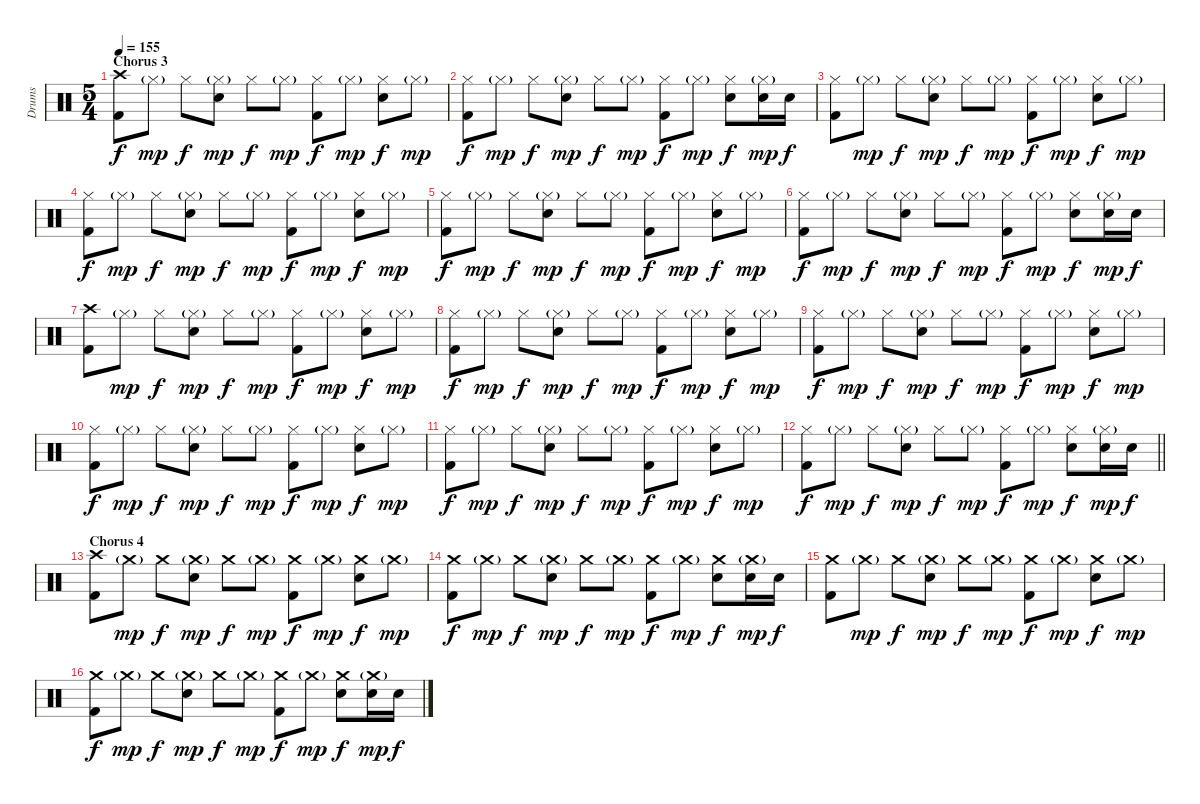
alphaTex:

\track ("Drums" "Drums") {instrument percussion}
\staff {score}
\articulation defaults
\ts (5 4)
\section ("" "Chorus 3")
\tempo 155
\clef neutral
\ks c
("Crash high (hit)" "Kick (hit) 2").8{dy f} "Hi-Hat (closed)"{g}.8{dy mp} "Hi-Hat (closed)".8{dy f} ("Hi-Hat (closed)"{g} "Electric Snare (hit)").8{dy mp} "Hi-Hat (closed)".8{dy f} "Hi-Hat (closed)"{g}.8{dy mp} ("Hi-Hat (closed)" "Kick (hit) 2").8{dy f} "Hi-Hat (closed)"{g}.8{dy mp} ("Hi-Hat (closed)" "Electric Snare (hit)").8{dy f} "Hi-Hat (closed)"{g}.8{dy mp} |
("Hi-Hat (closed)" "Kick (hit) 2").8{dy f} "Hi-Hat (closed)"{g}.8{dy mp} "Hi-Hat (closed)".8{dy f} ("Hi-Hat (closed)"{g} "Electric Snare (hit)").8{dy mp} "Hi-Hat (closed)".8{dy f} "Hi-Hat (closed)"{g}.8{dy mp} ("Hi-Hat (closed)" "Kick (hit) 2").8{dy f} "Hi-Hat (closed)"{g}.8{dy mp} ("Hi-Hat (closed)" "Electric Snare (hit)").8{dy f} ("Hi-Hat (closed)"{g} "Electric Snare (hit)").16{dy mp} "Electric Snare (hit)".16{dy f} |
("Hi-Hat (closed)" "Kick (hit) 2").8 "Hi-Hat (closed)"{g}.8{dy mp} "Hi-Hat (closed)".8{dy f} ("Hi-Hat (closed)"{g} "Electric Snare (hit)").8{dy mp} "Hi-Hat (closed)".8{dy f} "Hi-Hat (closed)"{g}.8{dy mp} ("Hi-Hat (closed)" "Kick (hit) 2").8{dy f} "Hi-Hat (closed)"{g}.8{dy mp} ("Hi-Hat (closed)" "Electric Snare (hit)").8{dy f} "Hi-Hat (closed)"{g}.8{dy mp} |
("Hi-Hat (closed)" "Kick (hit) 2").8{dy f} "Hi-Hat (closed)"{g}.8{dy mp} "Hi-Hat (closed)".8{dy f} ("Hi-Hat (closed)"{g} "Electric Snare (hit)").8{dy mp} "Hi-Hat (closed)".8{dy f} "Hi-Hat (closed)"{g}.8{dy mp} ("Hi-Hat (closed)" "Kick (hit) 2").8{dy f} "Hi-Hat (closed)"{g}.8{dy mp} ("Hi-Hat (closed)" "Electric Snare (hit)").8{dy f} "Hi-Hat (closed)"{g}.8{dy mp} |
("Hi-Hat (closed)" "Kick (hit) 2").8{dy f} "Hi-Hat (closed)"{g}.8{dy mp} "Hi-Hat (closed)".8{dy f} ("Hi-Hat (closed)"{g} "Electric Snare (hit)").8{dy mp} "Hi-Hat (closed)".8{dy f} "Hi-Hat (closed)"{g}.8{dy mp} ("Hi-Hat (closed)" "Kick (hit) 2").8{dy f} "Hi-Hat (closed)"{g}.8{dy mp} ("Hi-Hat (closed)" "Electric Snare (hit)").8{dy f} "Hi-Hat (closed)"{g}.8{dy mp} |
("Hi-Hat (closed)" "Kick (hit) 2").8{dy f} "Hi-Hat (closed)"{g}.8{dy mp} "Hi-Hat (closed)".8{dy f} ("Hi-Hat (closed)"{g} "Electric Snare (hit)").8{dy mp} "Hi-Hat (closed)".8{dy f} "Hi-Hat (closed)"{g}.8{dy mp} ("Hi-Hat (closed)" "Kick (hit) 2").8{dy f} "Hi-Hat (closed)"{g}.8{dy mp} ("Hi-Hat (closed)" "Electric Snare (hit)").8{dy f} ("Hi-Hat (closed)"{g} "Electric Snare (hit)").16{dy mp} "Electric Snare (hit)".16{dy f} |
("Crash high (hit)" "Kick (hit) 2").8 "Hi-Hat (closed)"{g}.8{dy mp} "Hi-Hat (closed)".8{dy f} ("Hi-Hat (closed)"{g} "Electric Snare (hit)").8{dy mp} "Hi-Hat (closed)".8{dy f} "Hi-Hat (closed)"{g}.8{dy mp} ("Hi-Hat (closed)" "Kick (hit) 2").8{dy f} "Hi-Hat (closed)"{g}.8{dy mp} ("Hi-Hat (closed)" "Electric Snare (hit)").8{dy f} "Hi-Hat (closed)"{g}.8{dy mp} |
("Hi-Hat (closed)" "Kick (hit) 2").8{dy f} "Hi-Hat (closed)"{g}.8{dy mp} "Hi-Hat (closed)".8{dy f} ("Hi-Hat (closed)"{g} "Electric Snare (hit)").8{dy mp} "Hi-Hat (closed)".8{dy f} "Hi-Hat (closed)"{g}.8{dy mp} ("Hi-Hat (closed)" "Kick (hit) 2").8{dy f} "Hi-Hat (closed)"{g}.8{dy mp} ("Hi-Hat (closed)" "Electric Snare (hit)").8{dy f} "Hi-Hat (closed)"{g}.8{dy mp} |
("Hi-Hat (closed)" "Kick (hit) 2").8{dy f} "Hi-Hat (closed)"{g}.8{dy mp} "Hi-Hat (closed)".8{dy f} ("Hi-Hat (closed)"{g} "Electric Snare (hit)").8{dy mp} "Hi-Hat (closed)".8{dy f} "Hi-Hat (closed)"{g}.8{dy mp} ("Hi-Hat (closed)" "Kick (hit) 2").8{dy f} "Hi-Hat (closed)"{g}.8{dy mp} ("Hi-Hat (closed)" "Electric Snare (hit)").8{dy f} "Hi-Hat (closed)"{g}.8{dy mp} |
("Hi-Hat (closed)" "Kick (hit) 2").8{dy f} "Hi-Hat (closed)"{g}.8{dy mp} "Hi-Hat (closed)".8{dy f} ("Hi-Hat (closed)"{g} "Electric Snare (hit)").8{dy mp} "Hi-Hat (closed)".8{dy f} "Hi-Hat (closed)"{g}.8{dy mp} ("Hi-Hat (closed)" "Kick (hit) 2").8{dy f} "Hi-Hat (closed)"{g}.8{dy mp} ("Hi-Hat (closed)" "Electric Snare (hit)").8{dy f} "Hi-Hat (closed)"{g}.8{dy mp} |
("Hi-Hat (closed)" "Kick (hit) 2").8{dy f} "Hi-Hat (closed)"{g}.8{dy mp} "Hi-Hat (closed)".8{dy f} ("Hi-Hat (closed)"{g} "Electric Snare (hit)").8{dy mp} "Hi-Hat (closed)".8{dy f} "Hi-Hat (closed)"{g}.8{dy mp} ("Hi-Hat (closed)" "Kick (hit) 2").8{dy f} "Hi-Hat (closed)"{g}.8{dy mp} ("Hi-Hat (closed)" "Electric Snare (hit)").8{dy f} "Hi-Hat (closed)"{g}.8{dy mp} |
\barLineRight lightlight
("Hi-Hat (closed)" "Kick (hit) 2").8{dy f} "Hi-Hat (closed)"{g}.8{dy mp} "Hi-Hat (closed)".8{dy f} ("Hi-Hat (closed)"{g} "Electric Snare (hit)").8{dy mp} "Hi-Hat (closed)".8{dy f} "Hi-Hat (closed)"{g}.8{dy mp} ("Hi-Hat (closed)" "Kick (hit) 2").8{dy f} "Hi-Hat (closed)"{g}.8{dy mp} ("Hi-Hat (closed)" "Electric Snare (hit)").8{dy f} ("Hi-Hat (closed)"{g} "Electric Snare (hit)").16{dy mp} "Electric Snare (hit)".16{dy f} |
\section ("" "Chorus 4")
("Crash high (hit)" "Kick (hit) 2").8 "Crash medium (hit)"{g}.8{dy mp} "Crash medium (hit)".8{dy f} ("Crash medium (hit)"{g} "Electric Snare (hit)").8{dy mp} "Crash medium (hit)".8{dy f} "Crash medium (hit)"{g}.8{dy mp} ("Crash medium (hit)" "Kick (hit) 2").8{dy f} "Crash medium (hit)"{g}.8{dy mp} ("Crash medium (hit)" "Electric Snare (hit)").8{dy f} "Crash medium (hit)"{g}.8{dy mp} |
("Crash medium (hit)" "Kick (hit) 2").8{dy f} "Crash medium (hit)"{g}.8{dy mp} "Crash medium (hit)".8{dy f} ("Crash medium (hit)"{g} "Electric Snare (hit)").8{dy mp} "Crash medium (hit)".8{dy f} "Crash medium (hit)"{g}.8{dy mp} ("Crash medium (hit)" "Kick (hit) 2").8{dy f} "Crash medium (hit)"{g}.8{dy mp} ("Crash medium (hit)" "Electric Snare (hit)").8{dy f} ("Crash medium (hit)"{g} "Electric Snare (hit)").16{dy mp} "Electric Snare (hit)".16{dy f} |
("Crash medium (hit)" "Kick (hit) 2").8 "Crash medium (hit)"{g}.8{dy mp} "Crash medium (hit)".8{dy f} ("Crash medium (hit)"{g} "Electric Snare (hit)").8{dy mp} "Crash medium (hit)".8{dy f} "Crash medium (hit)"{g}.8{dy mp} ("Crash medium (hit)" "Kick (hit) 2").8{dy f} "Crash medium (hit)"{g}.8{dy mp} ("Crash medium (hit)" "Electric Snare (hit)").8{dy f} "Crash medium (hit)"{g}.8{dy mp} |
("Crash medium (hit)" "Kick (hit) 2").8{dy f} "Crash medium (hit)"{g}.8{dy mp} "Crash medium (hit)".8{dy f} ("Crash medium (hit)"{g} "Electric Snare (hit)").8{dy mp} "Crash medium (hit)".8{dy f} "Crash medium (hit)"{g}.8{dy mp} ("Crash medium (hit)" "Kick (hit) 2").8{dy f} "Crash medium (hit)"{g}.8{dy mp} ("Crash medium (hit)" "Electric Snare (hit)").8{dy f} ("Crash medium (hit)"{g} "Electric Snare (hit)").16{dy mp} "Electric Snare (hit)".16{dy f}
